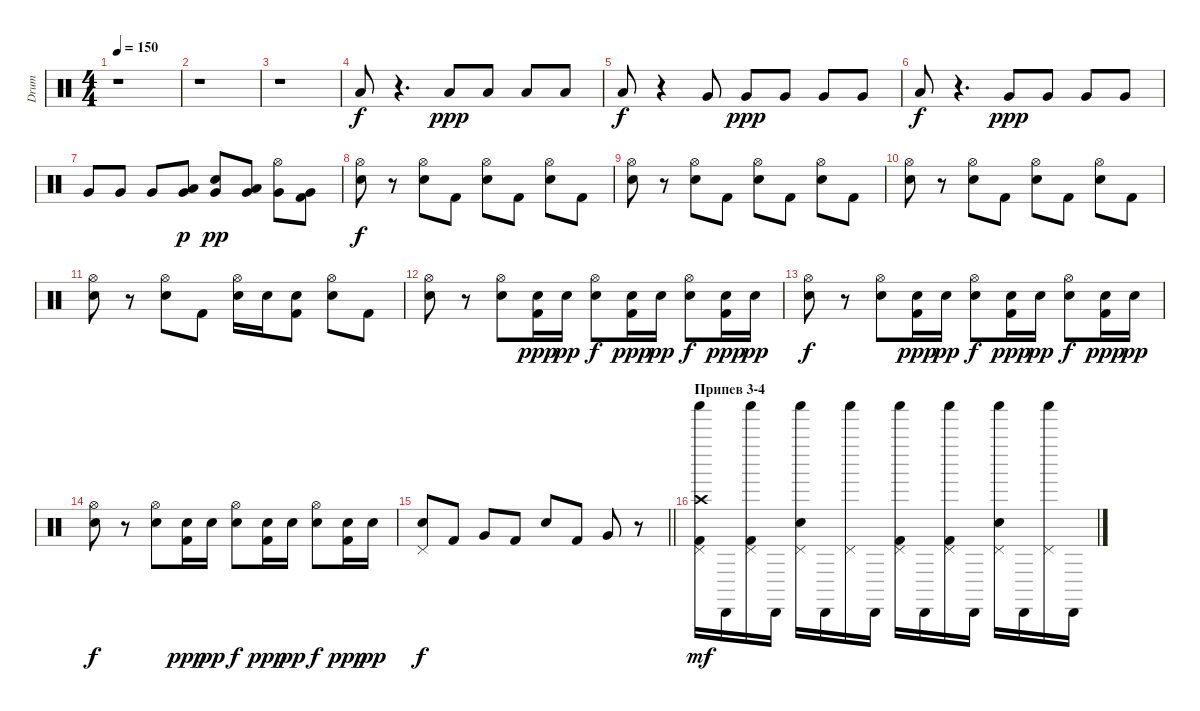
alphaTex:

\track ("Drum" "Drum") {instrument percussion}
\staff {score}
\articulation defaults
\ts (4 4)
\tempo 150
\clef neutral
\ks c
r.1{dy f} |
r.1 |
r.1 |
"Low Tom (hit)".8 r.4{d} "Low Tom (hit)".8{dy ppp} "Low Tom (hit)".8 "Low Tom (hit)".8 "Low Tom (hit)".8 |
"Low Tom (hit)".8{dy f} r.4 "Very Low Tom (hit)".8 "Very Low Tom (hit)".8{dy ppp} "Very Low Tom (hit)".8 "Very Low Tom (hit)".8 "Very Low Tom (hit)".8 |
"Low Floor Tom (hit)".8{dy f} r.4{d} "Very Low Tom (hit)".8{dy ppp} "Very Low Tom (hit)".8 "Very Low Tom (hit)".8 "Very Low Tom (hit)".8 |
"Very Low Tom (hit)".8 "Very Low Tom (hit)".8 "Very Low Tom (hit)".8 ("Low Floor Tom (hit)" "Very Low Tom (hit)").8{dy p} ("Snare (hit) 2" "Very Low Tom (hit)").8{dy pp} ("Low Floor Tom (hit)" "Very Low Tom (hit)").8 ("Hi-Hat (open)" "Very Low Tom (hit)").8 ("Kick (hit) 2" "Very Low Tom (hit)").8 |
("Snare (hit) 2" "Hi-Hat (open)").8{dy f} r.8 ("Snare (hit) 2" "Hi-Hat (open)").8 "Kick (hit) 2".8 ("Snare (hit) 2" "Hi-Hat (open)").8 "Kick (hit) 2".8 ("Snare (hit) 2" "Hi-Hat (open)").8 "Kick (hit) 2".8 |
("Snare (hit) 2" "Hi-Hat (open)").8 r.8 ("Snare (hit) 2" "Hi-Hat (open)").8 "Kick (hit) 2".8 ("Snare (hit) 2" "Hi-Hat (open)").8 "Kick (hit) 2".8 ("Snare (hit) 2" "Hi-Hat (open)").8 "Kick (hit) 2".8 |
("Snare (hit) 2" "Hi-Hat (open)").8 r.8 ("Snare (hit) 2" "Hi-Hat (open)").8 "Kick (hit) 2".8 ("Snare (hit) 2" "Hi-Hat (open)").8 "Kick (hit) 2".8 ("Snare (hit) 2" "Hi-Hat (open)").8 "Kick (hit) 2".8 |
("Snare (hit) 2" "Hi-Hat (open)").8 r.8 ("Hi-Hat (open)" "Snare (hit) 2").8 "Kick (hit) 2".8 ("Snare (hit) 2" "Hi-Hat (open)").16 "Snare (hit) 2".16 ("Snare (hit) 2" "Kick (hit) 2").8 ("Hi-Hat (open)" "Snare (hit) 2").8 "Kick (hit) 2".8 |
("Snare (hit) 2" "Hi-Hat (open)").8 r.8 ("Hi-Hat (open)" "Snare (hit) 2").8 ("Snare (hit) 2" "Kick (hit) 2").16{dy ppp} "Snare (hit) 2".16{dy pp} ("Hi-Hat (open)" "Snare (hit) 2").8{dy f} ("Snare (hit) 2" "Kick (hit) 2").16{dy ppp} "Snare (hit) 2".16{dy pp} ("Hi-Hat (open)" "Snare (hit) 2").8{dy f} ("Snare (hit) 2" "Kick (hit) 2").16{dy ppp} "Snare (hit) 2".16{dy pp} |
("Snare (hit) 2" "Hi-Hat (open)").8{dy f} r.8 ("Hi-Hat (open)" "Snare (hit) 2").8 ("Snare (hit) 2" "Kick (hit) 2").16{dy ppp} "Snare (hit) 2".16{dy pp} ("Hi-Hat (open)" "Snare (hit) 2").8{dy f} ("Snare (hit) 2" "Kick (hit) 2").16{dy ppp} "Snare (hit) 2".16{dy pp} ("Hi-Hat (open)" "Snare (hit) 2").8{dy f} ("Snare (hit) 2" "Kick (hit) 2").16{dy ppp} "Snare (hit) 2".16{dy pp} |
("Snare (hit) 2" "Hi-Hat (open)").8{dy f} r.8 ("Hi-Hat (open)" "Snare (hit) 2").8 ("Snare (hit) 2" "Kick (hit) 2").16{dy ppp} "Snare (hit) 2".16{dy pp} ("Hi-Hat (open)" "Snare (hit) 2").8{dy f} ("Snare (hit) 2" "Kick (hit) 2").16{dy ppp} "Snare (hit) 2".16{dy pp} ("Hi-Hat (open)" "Snare (hit) 2").8{dy f} ("Snare (hit) 2" "Kick (hit) 2").16{dy ppp} "Snare (hit) 2".16{dy pp} |
\barLineRight lightlight
("Snare (hit) 2" "Pedal Hi-Hat (hit)").8{dy f} "Kick (hit) 2".8 "Very Low Tom (hit)".8 "Kick (hit) 2".8 "Snare (hit) 2".8 "Kick (hit) 2".8 "Very Low Tom (hit)".8 r.8 |
\section ("" "Припев 3-4")
("Crash high (hit)" "Shaker (hit)" "Pedal Hi-Hat (hit)" "Kick (hit) 2").16{dy mf} "Cabasa (hit)".16 ("Pedal Hi-Hat (hit)" "Kick (hit) 2" "Shaker (hit)").16 "Cabasa (hit)".16 ("Shaker (hit)" "Pedal Hi-Hat (hit)" "Snare (hit) 2").16 "Cabasa (hit)".16 ("Pedal Hi-Hat (hit)" "Shaker (hit)").16 "Cabasa (hit)".16 ("Shaker (hit)" "Pedal Hi-Hat (hit)" "Kick (hit) 2").16 "Cabasa (hit)".16 ("Pedal Hi-Hat (hit)" "Kick (hit) 2" "Shaker (hit)").16 "Cabasa (hit)".16 ("Shaker (hit)" "Pedal Hi-Hat (hit)" "Snare (hit) 2").16 "Cabasa (hit)".16 ("Pedal Hi-Hat (hit)" "Shaker (hit)").16 "Cabasa (hit)".16
